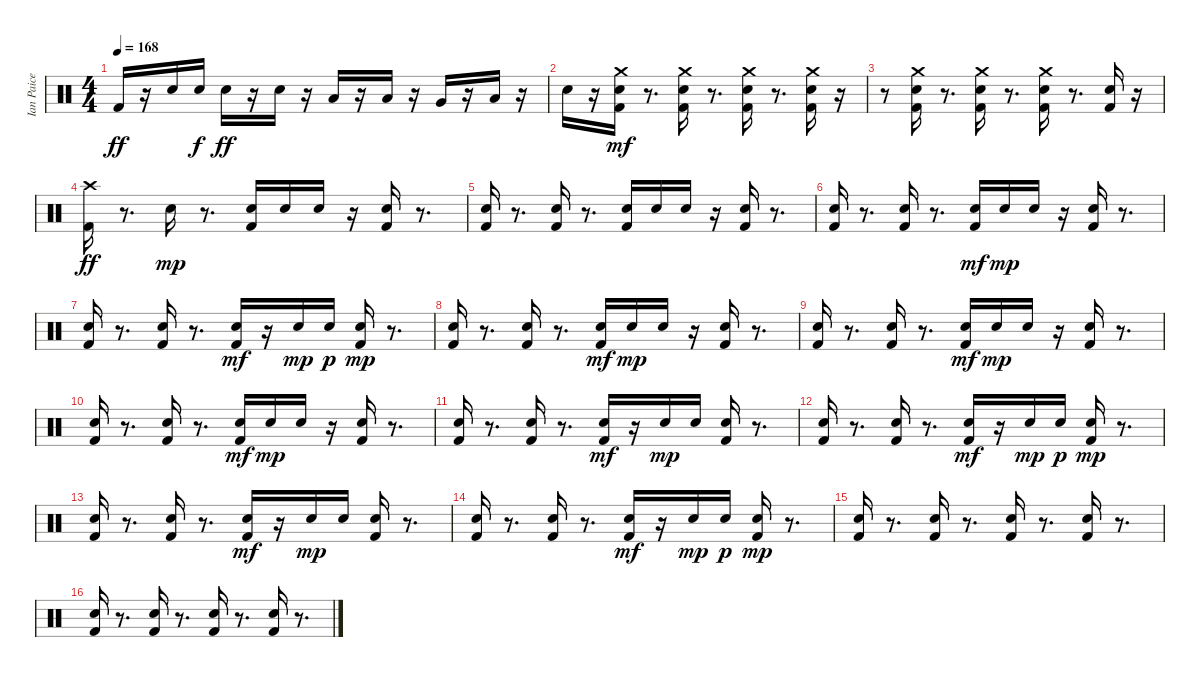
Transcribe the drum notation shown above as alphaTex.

\track ("Ian Paice" "Ian Paice") {instrument percussion}
\staff {score}
\articulation defaults
\ts (4 4)
\tempo 168
\clef neutral
\ks c "Kick (hit) 2".16{dy ff}
r.16 "Electric Snare (hit)".16 "Electric Snare (hit)".16{dy f} "Electric Snare (hit)".16{dy ff} r.16 "Electric Snare (hit)".16 r.16 "Low Tom (hit)".16 r.16 "Low Tom (hit)".16 r.16 "Very Low Tom (hit)".16 r.16 "Low Floor Tom (hit)".16 r.16 |
"Electric Snare (hit)".16 r.16 ("Electric Snare (hit)" "Crash medium (hit)" "Kick (hit) 2").16{dy mf} r.8{d} ("Electric Snare (hit)" "Crash medium (hit)" "Kick (hit) 2").16 r.8{d} ("Electric Snare (hit)" "Crash medium (hit)" "Kick (hit) 2").16 r.8{d} ("Electric Snare (hit)" "Crash medium (hit)" "Kick (hit) 2").16 r.16 |
r.8 ("Electric Snare (hit)" "Crash medium (hit)" "Kick (hit) 2").16 r.8{d} ("Electric Snare (hit)" "Crash medium (hit)" "Kick (hit) 2").16 r.8{d} ("Electric Snare (hit)" "Crash medium (hit)" "Kick (hit) 2").16 r.8{d} ("Electric Snare (hit)" "Kick (hit) 2").16 r.16 |
("Crash high (hit)" "Kick (hit) 2").16{dy ff} r.8{d} "Electric Snare (hit)".16{dy mp} r.8{d} ("Kick (hit) 2" "Electric Snare (hit)").16 "Electric Snare (hit)".16 "Electric Snare (hit)".16 r.16 ("Kick (hit) 2" "Electric Snare (hit)").16 r.8{d} |
("Kick (hit) 2" "Electric Snare (hit)").16 r.8{d} ("Kick (hit) 2" "Electric Snare (hit)").16 r.8{d} ("Kick (hit) 2" "Electric Snare (hit)").16 "Electric Snare (hit)".16 "Electric Snare (hit)".16 r.16 ("Kick (hit) 2" "Electric Snare (hit)").16 r.8{d} |
("Kick (hit) 2" "Electric Snare (hit)").16 r.8{d} ("Kick (hit) 2" "Electric Snare (hit)").16 r.8{d} ("Electric Snare (hit)" "Kick (hit) 2").16{dy mf} "Electric Snare (hit)".16{dy mp} "Electric Snare (hit)".16 r.16 ("Kick (hit) 2" "Electric Snare (hit)").16 r.8{d} |
("Kick (hit) 2" "Electric Snare (hit)").16 r.8{d} ("Kick (hit) 2" "Electric Snare (hit)").16 r.8{d} ("Electric Snare (hit)" "Kick (hit) 2").16{dy mf} r.16 "Electric Snare (hit)".16{dy mp} "Electric Snare (hit)".16{dy p} ("Kick (hit) 2" "Electric Snare (hit)").16{dy mp} r.8{d} |
("Kick (hit) 2" "Electric Snare (hit)").16 r.8{d} ("Kick (hit) 2" "Electric Snare (hit)").16 r.8{d} ("Electric Snare (hit)" "Kick (hit) 2").16{dy mf} "Electric Snare (hit)".16{dy mp} "Electric Snare (hit)".16 r.16 ("Kick (hit) 2" "Electric Snare (hit)").16 r.8{d} |
("Kick (hit) 2" "Electric Snare (hit)").16 r.8{d} ("Kick (hit) 2" "Electric Snare (hit)").16 r.8{d} ("Electric Snare (hit)" "Kick (hit) 2").16{dy mf} "Electric Snare (hit)".16{dy mp} "Electric Snare (hit)".16 r.16 ("Kick (hit) 2" "Electric Snare (hit)").16 r.8{d} |
("Kick (hit) 2" "Electric Snare (hit)").16 r.8{d} ("Kick (hit) 2" "Electric Snare (hit)").16 r.8{d} ("Electric Snare (hit)" "Kick (hit) 2").16{dy mf} "Electric Snare (hit)".16{dy mp} "Electric Snare (hit)".16 r.16 ("Kick (hit) 2" "Electric Snare (hit)").16 r.8{d} |
("Kick (hit) 2" "Electric Snare (hit)").16 r.8{d} ("Kick (hit) 2" "Electric Snare (hit)").16 r.8{d} ("Electric Snare (hit)" "Kick (hit) 2").16{dy mf} r.16 "Electric Snare (hit)".16{dy mp} "Electric Snare (hit)".16 ("Kick (hit) 2" "Electric Snare (hit)").16 r.8{d} |
("Kick (hit) 2" "Electric Snare (hit)").16 r.8{d} ("Kick (hit) 2" "Electric Snare (hit)").16 r.8{d} ("Electric Snare (hit)" "Kick (hit) 2").16{dy mf} r.16 "Electric Snare (hit)".16{dy mp} "Electric Snare (hit)".16{dy p} ("Kick (hit) 2" "Electric Snare (hit)").16{dy mp} r.8{d} |
("Kick (hit) 2" "Electric Snare (hit)").16 r.8{d} ("Kick (hit) 2" "Electric Snare (hit)").16 r.8{d} ("Electric Snare (hit)" "Kick (hit) 2").16{dy mf} r.16 "Electric Snare (hit)".16{dy mp} "Electric Snare (hit)".16 ("Kick (hit) 2" "Electric Snare (hit)").16 r.8{d} |
("Kick (hit) 2" "Electric Snare (hit)").16 r.8{d} ("Kick (hit) 2" "Electric Snare (hit)").16 r.8{d} ("Electric Snare (hit)" "Kick (hit) 2").16{dy mf} r.16 "Electric Snare (hit)".16{dy mp} "Electric Snare (hit)".16{dy p} ("Kick (hit) 2" "Electric Snare (hit)").16{dy mp} r.8{d} |
("Kick (hit) 2" "Electric Snare (hit)").16 r.8{d} ("Kick (hit) 2" "Electric Snare (hit)").16 r.8{d} ("Kick (hit) 2" "Electric Snare (hit)").16 r.8{d} ("Kick (hit) 2" "Electric Snare (hit)").16 r.8{d} |
("Kick (hit) 2" "Electric Snare (hit)").16 r.8{d} ("Kick (hit) 2" "Electric Snare (hit)").16 r.8{d} ("Kick (hit) 2" "Electric Snare (hit)").16 r.8{d} ("Kick (hit) 2" "Electric Snare (hit)").16 r.8{d}
